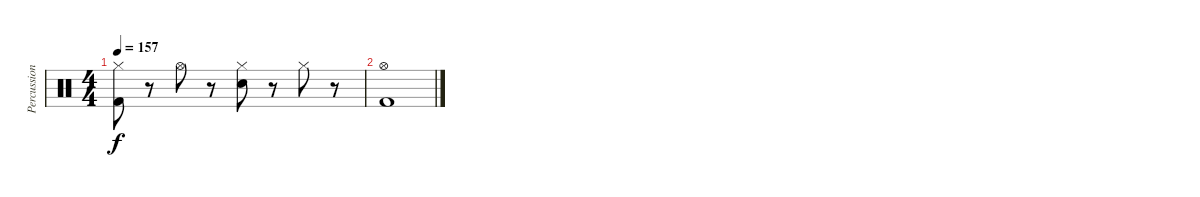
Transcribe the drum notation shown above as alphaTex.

\track ("Percussion" "Percussion") {instrument percussion}
\staff {score}
\articulation defaults
\ts (4 4)
\tempo 157
\clef neutral
\ks c
("Hi-Hat (closed)" "Kick (hit) 2").8{dy f} r.8 "Hi-Hat (open)".8 r.8 ("Hi-Hat (closed)" "Snare (hit) 2").8 r.8 "Hi-Hat (closed)".8 r.8 |
("Hi-Hat (open)" "Kick (hit) 2").1
